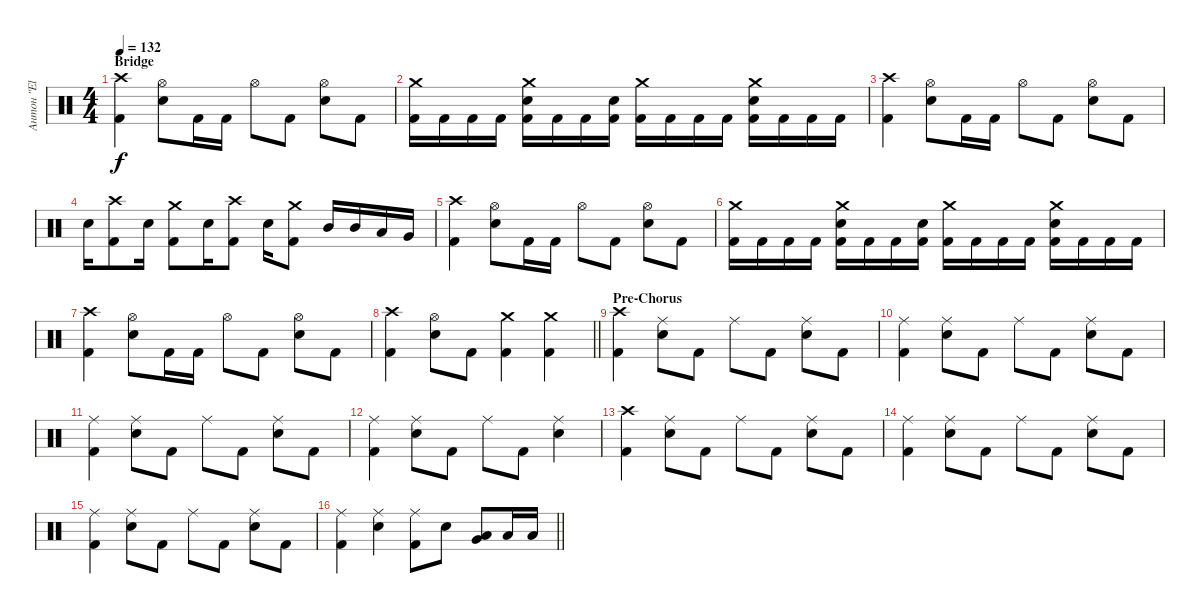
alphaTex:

\track ("Антон \"El Bastardo\" Смольянин" "Антон \"El ") {instrument percussion}
\staff {score}
\articulation defaults
\ts (4 4)
\section ("" "Bridge")
\tempo 132
\clef neutral
\ks c
("Crash high (hit)" "Kick (hit) 2").4{dy f} ("Hi-Hat (open)" "Electric Snare (hit)").8 "Kick (hit) 2".16 "Kick (hit) 2".16 "Hi-Hat (open)".8 "Kick (hit) 2".8 ("Hi-Hat (open)" "Electric Snare (hit)").8 "Kick (hit) 2".8 |
("Crash medium (hit)" "Kick (hit) 2").16 "Kick (hit) 2".16 "Kick (hit) 2".16 "Kick (hit) 2".16 ("Crash medium (hit)" "Electric Snare (hit)" "Kick (hit) 2").16 "Kick (hit) 2".16 "Kick (hit) 2".16 ("Electric Snare (hit)" "Kick (hit) 2").16 ("Crash medium (hit)" "Kick (hit) 2").16 "Kick (hit) 2".16 "Kick (hit) 2".16 "Kick (hit) 2".16 ("Crash medium (hit)" "Electric Snare (hit)" "Kick (hit) 2").16 "Kick (hit) 2".16 "Kick (hit) 2".16 "Kick (hit) 2".16 |
("Crash high (hit)" "Kick (hit) 2").4 ("Hi-Hat (open)" "Electric Snare (hit)").8 "Kick (hit) 2".16 "Kick (hit) 2".16 "Hi-Hat (open)".8 "Kick (hit) 2".8 ("Hi-Hat (open)" "Electric Snare (hit)").8 "Kick (hit) 2".8 |
"Electric Snare (hit)".16 ("Crash high (hit)" "Kick (hit) 2").8 "Electric Snare (hit)".16 ("Crash medium (hit)" "Kick (hit) 2").8 "Electric Snare (hit)".16 ("Crash high (hit)" "Kick (hit) 2").8 "Electric Snare (hit)".16 ("Crash medium (hit)" "Kick (hit) 2").8 "Mid Tom (hit)".16 "Mid Tom (hit)".16 "Low Tom (hit)".16 "Very Low Tom (hit)".16 |
("Crash high (hit)" "Kick (hit) 2").4 ("Hi-Hat (open)" "Electric Snare (hit)").8 "Kick (hit) 2".16 "Kick (hit) 2".16 "Hi-Hat (open)".8 "Kick (hit) 2".8 ("Hi-Hat (open)" "Electric Snare (hit)").8 "Kick (hit) 2".8 |
("Crash medium (hit)" "Kick (hit) 2").16 "Kick (hit) 2".16 "Kick (hit) 2".16 "Kick (hit) 2".16 ("Crash medium (hit)" "Electric Snare (hit)" "Kick (hit) 2").16 "Kick (hit) 2".16 "Kick (hit) 2".16 ("Electric Snare (hit)" "Kick (hit) 2").16 ("Crash medium (hit)" "Kick (hit) 2").16 "Kick (hit) 2".16 "Kick (hit) 2".16 "Kick (hit) 2".16 ("Crash medium (hit)" "Electric Snare (hit)" "Kick (hit) 2").16 "Kick (hit) 2".16 "Kick (hit) 2".16 "Kick (hit) 2".16 |
("Crash high (hit)" "Kick (hit) 2").4 ("Hi-Hat (open)" "Electric Snare (hit)").8 "Kick (hit) 2".16 "Kick (hit) 2".16 "Hi-Hat (open)".8 "Kick (hit) 2".8 ("Hi-Hat (open)" "Electric Snare (hit)").8 "Kick (hit) 2".8 |
\barLineRight lightlight
("Crash high (hit)" "Kick (hit) 2").4 ("Hi-Hat (open)" "Electric Snare (hit)").8 "Kick (hit) 2".8 ("Crash medium (hit)" "Kick (hit) 2").4 ("Crash medium (hit)" "Kick (hit) 2").4 |
\section ("" "Pre-Chorus")
("Crash high (hit)" "Kick (hit) 2").4 ("Ride (middle)" "Electric Snare (hit)").8 "Kick (hit) 2".8 "Ride (middle)".8 "Kick (hit) 2".8 ("Ride (middle)" "Electric Snare (hit)").8 "Kick (hit) 2".8 |
("Ride (middle)" "Kick (hit) 2").4 ("Ride (middle)" "Electric Snare (hit)").8 "Kick (hit) 2".8 "Ride (middle)".8 "Kick (hit) 2".8 ("Ride (middle)" "Electric Snare (hit)").8 "Kick (hit) 2".8 |
("Ride (middle)" "Kick (hit) 2").4 ("Ride (middle)" "Electric Snare (hit)").8 "Kick (hit) 2".8 "Ride (middle)".8 "Kick (hit) 2".8 ("Ride (middle)" "Electric Snare (hit)").8 "Kick (hit) 2".8 |
("Ride (middle)" "Kick (hit) 2").4 ("Ride (middle)" "Electric Snare (hit)").8 "Kick (hit) 2".8 "Ride (middle)".8 "Kick (hit) 2".8 ("Ride (middle)" "Electric Snare (hit)").4 |
("Crash high (hit)" "Kick (hit) 2").4 ("Ride (middle)" "Electric Snare (hit)").8 "Kick (hit) 2".8 "Ride (middle)".8 "Kick (hit) 2".8 ("Ride (middle)" "Electric Snare (hit)").8 "Kick (hit) 2".8 |
("Ride (middle)" "Kick (hit) 2").4 ("Ride (middle)" "Electric Snare (hit)").8 "Kick (hit) 2".8 "Ride (middle)".8 "Kick (hit) 2".8 ("Ride (middle)" "Electric Snare (hit)").8 "Kick (hit) 2".8 |
("Ride (middle)" "Kick (hit) 2").4 ("Ride (middle)" "Electric Snare (hit)").8 "Kick (hit) 2".8 "Ride (middle)".8 "Kick (hit) 2".8 ("Ride (middle)" "Electric Snare (hit)").8 "Kick (hit) 2".8 |
\barLineRight lightlight
("Ride (middle)" "Kick (hit) 2").4 ("Ride (middle)" "Electric Snare (hit)").4 ("Ride (middle)" "Kick (hit) 2").8 "Electric Snare (hit)".8 ("Low Tom (hit)" "Very Low Tom (hit)").8 "Low Tom (hit)".16 "Low Tom (hit)".16
